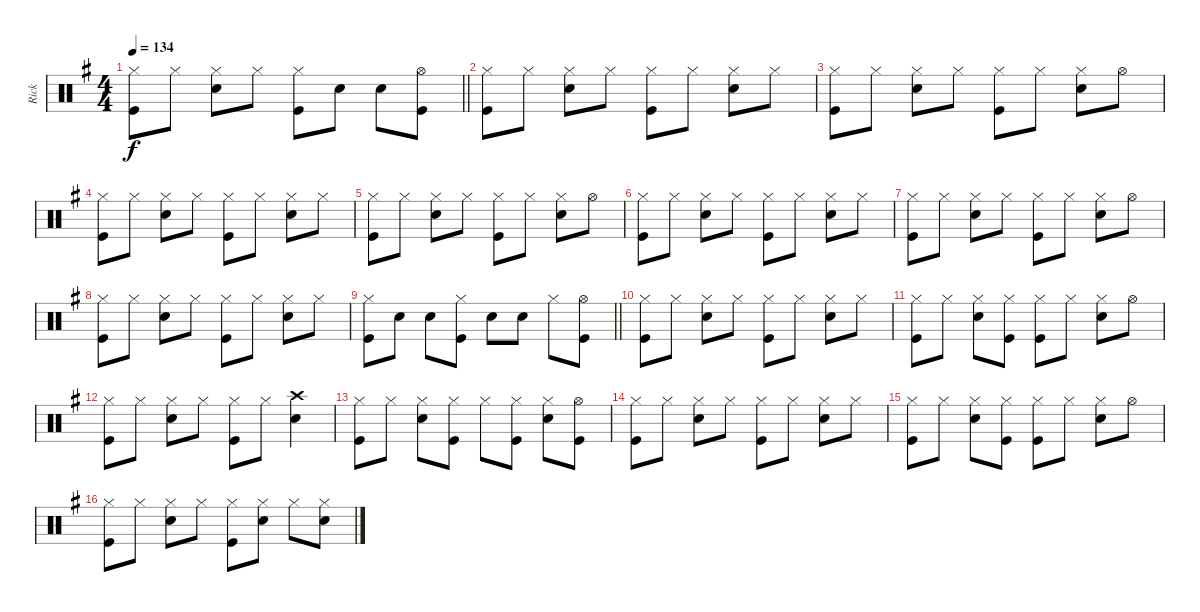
\track ("Rick" "Rick") {instrument percussion}
\staff {score}
\articulation defaults
\ts (4 4)
\tempo 134
\clef neutral
\barLineRight lightlight
\ks g
("Hi-Hat (closed)" "Kick (hit)").8{dy f} "Hi-Hat (closed)".8 ("Hi-Hat (closed)" "Snare (hit) 2").8 "Hi-Hat (closed)".8 ("Hi-Hat (closed)" "Kick (hit)").8 "Snare (hit) 2".8 "Snare (hit) 2".8 ("Hi-Hat (open)" "Kick (hit)").8 |
("Hi-Hat (closed)" "Kick (hit)").8 "Hi-Hat (closed)".8 ("Hi-Hat (closed)" "Snare (hit) 2").8 "Hi-Hat (closed)".8 ("Hi-Hat (closed)" "Kick (hit)").8 "Hi-Hat (closed)".8 ("Hi-Hat (closed)" "Snare (hit) 2").8 "Hi-Hat (closed)".8 |
("Hi-Hat (closed)" "Kick (hit)").8 "Hi-Hat (closed)".8 ("Hi-Hat (closed)" "Snare (hit) 2").8 "Hi-Hat (closed)".8 ("Hi-Hat (closed)" "Kick (hit)").8 "Hi-Hat (closed)".8 ("Hi-Hat (closed)" "Snare (hit) 2").8 "Hi-Hat (open)".8 |
("Hi-Hat (closed)" "Kick (hit)").8 "Hi-Hat (closed)".8 ("Hi-Hat (closed)" "Snare (hit) 2").8 "Hi-Hat (closed)".8 ("Hi-Hat (closed)" "Kick (hit)").8 "Hi-Hat (closed)".8 ("Hi-Hat (closed)" "Snare (hit) 2").8 "Hi-Hat (closed)".8 |
("Hi-Hat (closed)" "Kick (hit)").8 "Hi-Hat (closed)".8 ("Hi-Hat (closed)" "Snare (hit) 2").8 "Hi-Hat (closed)".8 ("Hi-Hat (closed)" "Kick (hit)").8 "Hi-Hat (closed)".8 ("Hi-Hat (closed)" "Snare (hit) 2").8 "Hi-Hat (open)".8 |
("Hi-Hat (closed)" "Kick (hit)").8 "Hi-Hat (closed)".8 ("Hi-Hat (closed)" "Snare (hit) 2").8 "Hi-Hat (closed)".8 ("Hi-Hat (closed)" "Kick (hit)").8 "Hi-Hat (closed)".8 ("Hi-Hat (closed)" "Snare (hit) 2").8 "Hi-Hat (closed)".8 |
("Hi-Hat (closed)" "Kick (hit)").8 "Hi-Hat (closed)".8 ("Hi-Hat (closed)" "Snare (hit) 2").8 "Hi-Hat (closed)".8 ("Hi-Hat (closed)" "Kick (hit)").8 "Hi-Hat (closed)".8 ("Hi-Hat (closed)" "Snare (hit) 2").8 "Hi-Hat (open)".8 |
("Hi-Hat (closed)" "Kick (hit)").8 "Hi-Hat (closed)".8 ("Hi-Hat (closed)" "Snare (hit) 2").8 "Hi-Hat (closed)".8 ("Hi-Hat (closed)" "Kick (hit)").8 "Hi-Hat (closed)".8 ("Hi-Hat (closed)" "Snare (hit) 2").8 "Hi-Hat (closed)".8 |
\barLineRight lightlight
("Hi-Hat (closed)" "Kick (hit)").8 "Snare (hit) 2".8 "Snare (hit) 2".8 ("Hi-Hat (closed)" "Kick (hit)").8 "Snare (hit) 2".8 "Snare (hit) 2".8 "Hi-Hat (closed)".8 ("Hi-Hat (open)" "Kick (hit)").8 |
("Hi-Hat (closed)" "Kick (hit)").8 "Hi-Hat (closed)".8 ("Hi-Hat (closed)" "Snare (hit) 2").8 "Hi-Hat (closed)".8 ("Hi-Hat (closed)" "Kick (hit)").8 "Hi-Hat (closed)".8 ("Hi-Hat (closed)" "Snare (hit) 2").8 "Hi-Hat (closed)".8 |
("Hi-Hat (closed)" "Kick (hit)").8 "Hi-Hat (closed)".8 ("Hi-Hat (closed)" "Snare (hit) 2").8 ("Hi-Hat (closed)" "Kick (hit)").8 ("Hi-Hat (closed)" "Kick (hit)").8 "Hi-Hat (closed)".8 ("Hi-Hat (closed)" "Snare (hit) 2").8 "Hi-Hat (open)".8 |
("Hi-Hat (closed)" "Kick (hit)").8 "Hi-Hat (closed)".8 ("Hi-Hat (closed)" "Snare (hit) 2").8 "Hi-Hat (closed)".8 ("Hi-Hat (closed)" "Kick (hit)").8 "Hi-Hat (closed)".8 ("Crash high (hit)" "Snare (hit) 2").4 |
("Hi-Hat (closed)" "Kick (hit)").8 "Hi-Hat (closed)".8 ("Hi-Hat (closed)" "Snare (hit) 2").8 ("Hi-Hat (closed)" "Kick (hit)").8 "Hi-Hat (closed)".8 ("Hi-Hat (closed)" "Kick (hit)").8 ("Hi-Hat (closed)" "Snare (hit) 2").8 ("Hi-Hat (open)" "Kick (hit)").8 |
("Hi-Hat (closed)" "Kick (hit)").8 "Hi-Hat (closed)".8 ("Hi-Hat (closed)" "Snare (hit) 2").8 "Hi-Hat (closed)".8 ("Hi-Hat (closed)" "Kick (hit)").8 "Hi-Hat (closed)".8 ("Hi-Hat (closed)" "Snare (hit) 2").8 "Hi-Hat (closed)".8 |
("Hi-Hat (closed)" "Kick (hit)").8 "Hi-Hat (closed)".8 ("Hi-Hat (closed)" "Snare (hit) 2").8 ("Hi-Hat (closed)" "Kick (hit)").8 ("Hi-Hat (closed)" "Kick (hit)").8 "Hi-Hat (closed)".8 ("Hi-Hat (closed)" "Snare (hit) 2").8 "Hi-Hat (open)".8 |
("Hi-Hat (closed)" "Kick (hit)").8 "Hi-Hat (closed)".8 ("Hi-Hat (closed)" "Snare (hit) 2").8 "Hi-Hat (closed)".8 ("Hi-Hat (closed)" "Kick (hit)").8 ("Hi-Hat (closed)" "Snare (hit) 2").8 "Hi-Hat (closed)".8 ("Hi-Hat (closed)" "Snare (hit) 2").8
